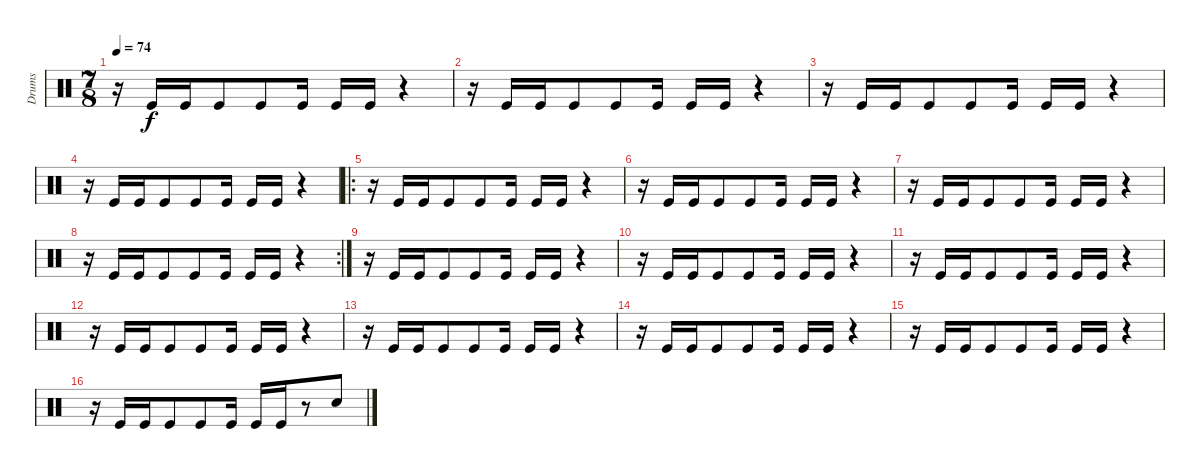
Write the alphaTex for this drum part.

\track ("Drums" "Drums") {instrument percussion}
\staff {score}
\articulation defaults
\ts (7 8)
\tempo 74
\clef neutral
\ks c
r.16{dy f} "Kick (hit)".16 "Kick (hit)".16 "Kick (hit)".8 "Kick (hit)".8 "Kick (hit)".16 "Kick (hit)".16 "Kick (hit)".16 r.4 |
r.16 "Kick (hit)".16 "Kick (hit)".16 "Kick (hit)".8 "Kick (hit)".8 "Kick (hit)".16 "Kick (hit)".16 "Kick (hit)".16 r.4 |
r.16 "Kick (hit)".16 "Kick (hit)".16 "Kick (hit)".8 "Kick (hit)".8 "Kick (hit)".16 "Kick (hit)".16 "Kick (hit)".16 r.4 |
r.16 "Kick (hit)".16 "Kick (hit)".16 "Kick (hit)".8 "Kick (hit)".8 "Kick (hit)".16 "Kick (hit)".16 "Kick (hit)".16 r.4 |
\ro
r.16 "Kick (hit)".16 "Kick (hit)".16 "Kick (hit)".8 "Kick (hit)".8 "Kick (hit)".16 "Kick (hit)".16 "Kick (hit)".16 r.4 |
r.16 "Kick (hit)".16 "Kick (hit)".16 "Kick (hit)".8 "Kick (hit)".8 "Kick (hit)".16 "Kick (hit)".16 "Kick (hit)".16 r.4 |
r.16 "Kick (hit)".16 "Kick (hit)".16 "Kick (hit)".8 "Kick (hit)".8 "Kick (hit)".16 "Kick (hit)".16 "Kick (hit)".16 r.4 |
\rc 2
r.16 "Kick (hit)".16 "Kick (hit)".16 "Kick (hit)".8 "Kick (hit)".8 "Kick (hit)".16 "Kick (hit)".16 "Kick (hit)".16 r.4 |
r.16 "Kick (hit)".16 "Kick (hit)".16 "Kick (hit)".8 "Kick (hit)".8 "Kick (hit)".16 "Kick (hit)".16 "Kick (hit)".16 r.4 |
r.16 "Kick (hit)".16 "Kick (hit)".16 "Kick (hit)".8 "Kick (hit)".8 "Kick (hit)".16 "Kick (hit)".16 "Kick (hit)".16 r.4 |
r.16 "Kick (hit)".16 "Kick (hit)".16 "Kick (hit)".8 "Kick (hit)".8 "Kick (hit)".16 "Kick (hit)".16 "Kick (hit)".16 r.4 |
r.16 "Kick (hit)".16 "Kick (hit)".16 "Kick (hit)".8 "Kick (hit)".8 "Kick (hit)".16 "Kick (hit)".16 "Kick (hit)".16 r.4 |
r.16 "Kick (hit)".16 "Kick (hit)".16 "Kick (hit)".8 "Kick (hit)".8 "Kick (hit)".16 "Kick (hit)".16 "Kick (hit)".16 r.4 |
r.16 "Kick (hit)".16 "Kick (hit)".16 "Kick (hit)".8 "Kick (hit)".8 "Kick (hit)".16 "Kick (hit)".16 "Kick (hit)".16 r.4 |
r.16 "Kick (hit)".16 "Kick (hit)".16 "Kick (hit)".8 "Kick (hit)".8 "Kick (hit)".16 "Kick (hit)".16 "Kick (hit)".16 r.4 |
r.16 "Kick (hit)".16 "Kick (hit)".16 "Kick (hit)".8 "Kick (hit)".8 "Kick (hit)".16 "Kick (hit)".16 "Kick (hit)".16 r.8 "Snare (hit) 2".8
